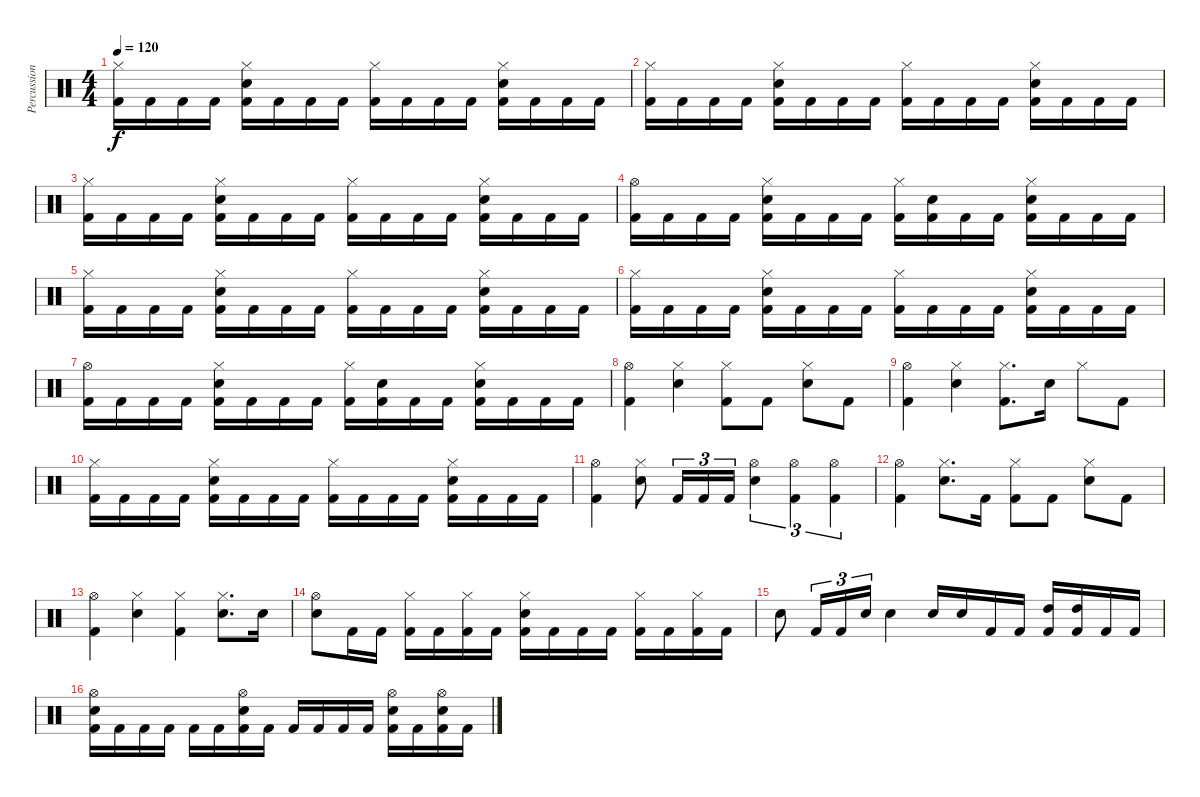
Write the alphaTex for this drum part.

\track ("Percussions" "Percussion") {instrument percussion}
\staff {score}
\articulation defaults
\ts (4 4)
\tempo 120
\clef neutral
\ks c
("Hi-Hat (closed)" "Kick (hit) 2").16{dy f} "Kick (hit) 2".16 "Kick (hit) 2".16 "Kick (hit) 2".16 ("Hi-Hat (closed)" "Snare (hit) 2" "Kick (hit) 2").16 "Kick (hit) 2".16 "Kick (hit) 2".16 "Kick (hit) 2".16 ("Hi-Hat (closed)" "Kick (hit) 2").16 "Kick (hit) 2".16 "Kick (hit) 2".16 "Kick (hit) 2".16 ("Hi-Hat (closed)" "Snare (hit) 2" "Kick (hit) 2").16 "Kick (hit) 2".16 "Kick (hit) 2".16 "Kick (hit) 2".16 |
("Hi-Hat (closed)" "Kick (hit) 2").16 "Kick (hit) 2".16 "Kick (hit) 2".16 "Kick (hit) 2".16 ("Hi-Hat (closed)" "Snare (hit) 2" "Kick (hit) 2").16 "Kick (hit) 2".16 "Kick (hit) 2".16 "Kick (hit) 2".16 ("Hi-Hat (closed)" "Kick (hit) 2").16 "Kick (hit) 2".16 "Kick (hit) 2".16 "Kick (hit) 2".16 ("Hi-Hat (closed)" "Snare (hit) 2" "Kick (hit) 2").16 "Kick (hit) 2".16 "Kick (hit) 2".16 "Kick (hit) 2".16 |
("Hi-Hat (closed)" "Kick (hit) 2").16 "Kick (hit) 2".16 "Kick (hit) 2".16 "Kick (hit) 2".16 ("Hi-Hat (closed)" "Snare (hit) 2" "Kick (hit) 2").16 "Kick (hit) 2".16 "Kick (hit) 2".16 "Kick (hit) 2".16 ("Hi-Hat (closed)" "Kick (hit) 2").16 "Kick (hit) 2".16 "Kick (hit) 2".16 "Kick (hit) 2".16 ("Hi-Hat (closed)" "Snare (hit) 2" "Kick (hit) 2").16 "Kick (hit) 2".16 "Kick (hit) 2".16 "Kick (hit) 2".16 |
("Hi-Hat (open)" "Kick (hit) 2").16 "Kick (hit) 2".16 "Kick (hit) 2".16 "Kick (hit) 2".16 ("Hi-Hat (closed)" "Snare (hit) 2" "Kick (hit) 2").16 "Kick (hit) 2".16 "Kick (hit) 2".16 "Kick (hit) 2".16 ("Hi-Hat (closed)" "Kick (hit) 2").16 ("Snare (hit) 2" "Kick (hit) 2").16 "Kick (hit) 2".16 "Kick (hit) 2".16 ("Hi-Hat (closed)" "Snare (hit) 2" "Kick (hit) 2").16 "Kick (hit) 2".16 "Kick (hit) 2".16 "Kick (hit) 2".16 |
("Hi-Hat (closed)" "Kick (hit) 2").16 "Kick (hit) 2".16 "Kick (hit) 2".16 "Kick (hit) 2".16 ("Hi-Hat (closed)" "Snare (hit) 2" "Kick (hit) 2").16 "Kick (hit) 2".16 "Kick (hit) 2".16 "Kick (hit) 2".16 ("Hi-Hat (closed)" "Kick (hit) 2").16 "Kick (hit) 2".16 "Kick (hit) 2".16 "Kick (hit) 2".16 ("Hi-Hat (closed)" "Snare (hit) 2" "Kick (hit) 2").16 "Kick (hit) 2".16 "Kick (hit) 2".16 "Kick (hit) 2".16 |
("Hi-Hat (closed)" "Kick (hit) 2").16 "Kick (hit) 2".16 "Kick (hit) 2".16 "Kick (hit) 2".16 ("Hi-Hat (closed)" "Snare (hit) 2" "Kick (hit) 2").16 "Kick (hit) 2".16 "Kick (hit) 2".16 "Kick (hit) 2".16 ("Hi-Hat (closed)" "Kick (hit) 2").16 "Kick (hit) 2".16 "Kick (hit) 2".16 "Kick (hit) 2".16 ("Hi-Hat (closed)" "Snare (hit) 2" "Kick (hit) 2").16 "Kick (hit) 2".16 "Kick (hit) 2".16 "Kick (hit) 2".16 |
("Hi-Hat (open)" "Kick (hit) 2").16 "Kick (hit) 2".16 "Kick (hit) 2".16 "Kick (hit) 2".16 ("Hi-Hat (closed)" "Snare (hit) 2" "Kick (hit) 2").16 "Kick (hit) 2".16 "Kick (hit) 2".16 "Kick (hit) 2".16 ("Hi-Hat (closed)" "Kick (hit) 2").16 ("Snare (hit) 2" "Kick (hit) 2").16 "Kick (hit) 2".16 "Kick (hit) 2".16 ("Hi-Hat (closed)" "Snare (hit) 2" "Kick (hit) 2").16 "Kick (hit) 2".16 "Kick (hit) 2".16 "Kick (hit) 2".16 |
("Hi-Hat (open)" "Kick (hit) 2").4 ("Hi-Hat (closed)" "Snare (hit) 2").4 ("Hi-Hat (closed)" "Kick (hit) 2").8 "Kick (hit) 2".8 ("Hi-Hat (closed)" "Snare (hit) 2").8 "Kick (hit) 2".8 |
("Hi-Hat (open)" "Kick (hit) 2").4 ("Hi-Hat (closed)" "Snare (hit) 2").4 ("Hi-Hat (closed)" "Kick (hit) 2").8{d} "Snare (hit) 2".16 "Hi-Hat (closed)".8 "Kick (hit) 2".8 |
("Hi-Hat (closed)" "Kick (hit) 2").16 "Kick (hit) 2".16 "Kick (hit) 2".16 "Kick (hit) 2".16 ("Hi-Hat (closed)" "Snare (hit) 2" "Kick (hit) 2").16 "Kick (hit) 2".16 "Kick (hit) 2".16 "Kick (hit) 2".16 ("Hi-Hat (closed)" "Kick (hit) 2").16 "Kick (hit) 2".16 "Kick (hit) 2".16 "Kick (hit) 2".16 ("Hi-Hat (closed)" "Snare (hit) 2" "Kick (hit) 2").16 "Kick (hit) 2".16 "Kick (hit) 2".16 "Kick (hit) 2".16 |
("Hi-Hat (open)" "Kick (hit) 2").4 ("Hi-Hat (closed)" "Snare (hit) 2").8 "Kick (hit) 2".16{tu (3 2)} "Kick (hit) 2".16{tu (3 2)} "Kick (hit) 2".16{tu (3 2)} ("Hi-Hat (open)" "Snare (hit) 2").4{tu (3 2)} ("Hi-Hat (open)" "Kick (hit) 2").4{tu (3 2)} ("Hi-Hat (open)" "Kick (hit) 2").4{tu (3 2)} |
("Hi-Hat (open)" "Kick (hit) 2").4 ("Hi-Hat (closed)" "Snare (hit) 2").8{d} "Kick (hit) 2".16 ("Hi-Hat (closed)" "Kick (hit) 2").8 "Kick (hit) 2".8 ("Hi-Hat (closed)" "Snare (hit) 2").8 "Kick (hit) 2".8 |
("Hi-Hat (open)" "Kick (hit) 2").4 ("Hi-Hat (closed)" "Snare (hit) 2").4 ("Hi-Hat (closed)" "Kick (hit) 2").4 ("Hi-Hat (closed)" "Snare (hit) 2").8{d} "Snare (hit) 2".16 |
("Hi-Hat (open)" "Snare (hit) 2").8 "Kick (hit) 2".16 "Kick (hit) 2".16 ("Hi-Hat (closed)" "Kick (hit) 2").16 "Kick (hit) 2".16 ("Hi-Hat (closed)" "Kick (hit) 2").16 "Kick (hit) 2".16 ("Hi-Hat (closed)" "Snare (hit) 2" "Kick (hit) 2").16 "Kick (hit) 2".16 "Kick (hit) 2".16 "Kick (hit) 2".16 ("Hi-Hat (closed)" "Kick (hit) 2").16 "Kick (hit) 2".16 ("Hi-Hat (closed)" "Kick (hit) 2").16 "Kick (hit) 2".16 |
"Snare (hit) 2".8 "Kick (hit) 2".16{tu (3 2)} "Kick (hit) 2".16{tu (3 2)} "Snare (hit) 2".16{tu (3 2)} "Snare (hit) 2".4 "Snare (hit) 2".16 "Snare (hit) 2".16 "Kick (hit) 2".16 "Kick (hit) 2".16 ("High Tom (hit)" "Kick (hit) 2").16 ("High Tom (hit)" "Kick (hit) 2").16 "Kick (hit) 2".16 "Kick (hit) 2".16 |
("Hi-Hat (open)" "Snare (hit) 2" "Kick (hit) 2").16 "Kick (hit) 2".16 "Kick (hit) 2".16 "Kick (hit) 2".16 "Kick (hit) 2".16 "Kick (hit) 2".16 ("Hi-Hat (open)" "Snare (hit) 2" "Kick (hit) 2").16 "Kick (hit) 2".16 "Kick (hit) 2".16 "Kick (hit) 2".16 "Kick (hit) 2".16 "Kick (hit) 2".16 ("Hi-Hat (open)" "Snare (hit) 2" "Kick (hit) 2").16 "Kick (hit) 2".16 ("Hi-Hat (open)" "Snare (hit) 2" "Kick (hit) 2").16 "Kick (hit) 2".16
